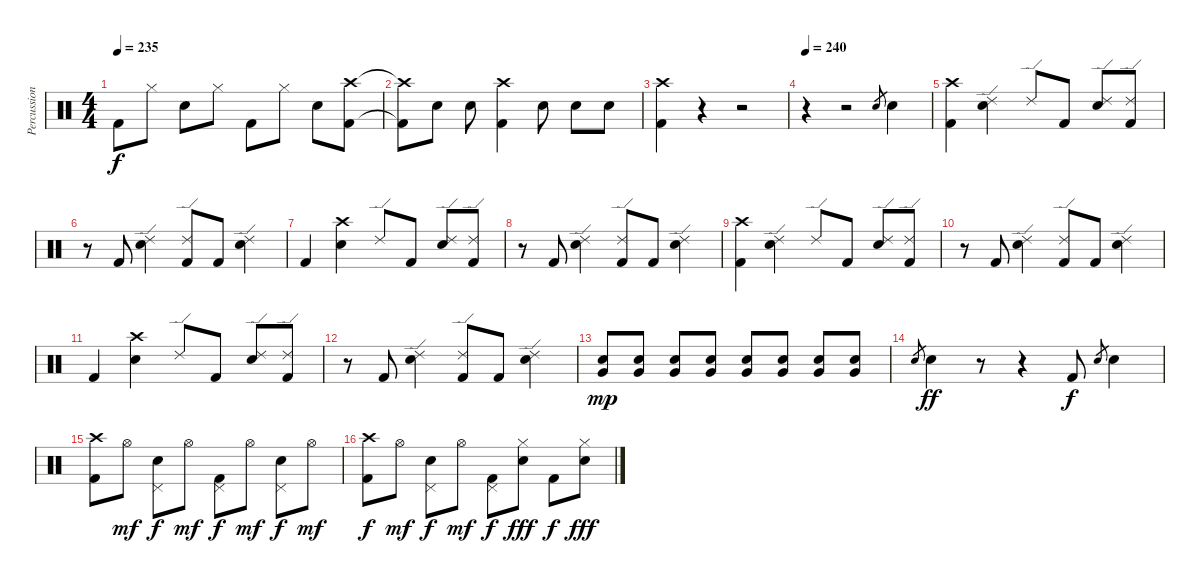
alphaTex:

\track ("Percussion" "Percussion") {instrument percussion}
\staff {score}
\articulation defaults
\ts (4 4)
\tempo 235
\clef neutral
\ks c "Kick (hit) 2".8{dy f} "Hi-Hat (closed)".8 "Snare (hit) 2".8 "Hi-Hat (closed)".8 "Kick (hit) 2".8 "Hi-Hat (closed)".8 "Snare (hit) 2".8
("Crash high (hit)" "Kick (hit) 2").8 |
("Crash high (hit)"{t} "Kick (hit) 2"{t}).8 "Snare (hit) 2".8 "Snare (hit) 2".8 ("Crash high (hit)" "Kick (hit) 2").4 "Snare (hit) 2".8 "Snare (hit) 2".8 "Snare (hit) 2".8 |
("Crash high (hit)" "Kick (hit) 2").4 r.4 r.2 |
\tempo 240
r.4 r.2 "Snare (hit) 2".8{gr} "Snare (hit) 2".4 |
("Crash high (hit)" "Kick (hit) 2").4 ("Ride (edge) 2" "Snare (hit) 2").4 "Ride (edge) 2".8 "Kick (hit) 2".8 ("Ride (edge) 2" "Snare (hit) 2").8 ("Ride (edge) 2" "Kick (hit) 2").8 |
r.8 "Kick (hit) 2".8 ("Ride (edge) 2" "Snare (hit) 2").4 ("Ride (edge) 2" "Kick (hit) 2").8 "Kick (hit) 2".8 ("Ride (edge) 2" "Snare (hit) 2").4 |
"Kick (hit) 2".4 ("Crash high (hit)" "Snare (hit) 2").4 "Ride (edge) 2".8 "Kick (hit) 2".8 ("Ride (edge) 2" "Snare (hit) 2").8 ("Ride (edge) 2" "Kick (hit) 2").8 |
r.8 "Kick (hit) 2".8 ("Ride (edge) 2" "Snare (hit) 2").4 ("Ride (edge) 2" "Kick (hit) 2").8 "Kick (hit) 2".8 ("Ride (edge) 2" "Snare (hit) 2").4 |
("Crash high (hit)" "Kick (hit) 2").4 ("Ride (edge) 2" "Snare (hit) 2").4 "Ride (edge) 2".8 "Kick (hit) 2".8 ("Ride (edge) 2" "Snare (hit) 2").8 ("Ride (edge) 2" "Kick (hit) 2").8 |
r.8 "Kick (hit) 2".8 ("Ride (edge) 2" "Snare (hit) 2").4 ("Ride (edge) 2" "Kick (hit) 2").8 "Kick (hit) 2".8 ("Ride (edge) 2" "Snare (hit) 2").4 |
"Kick (hit) 2".4 ("Crash high (hit)" "Snare (hit) 2").4 "Ride (edge) 2".8 "Kick (hit) 2".8 ("Ride (edge) 2" "Snare (hit) 2").8 ("Ride (edge) 2" "Kick (hit) 2").8 |
r.8 "Kick (hit) 2".8 ("Ride (edge) 2" "Snare (hit) 2").4 ("Ride (edge) 2" "Kick (hit) 2").8 "Kick (hit) 2".8 ("Ride (edge) 2" "Snare (hit) 2").4 |
("Very Low Tom (hit)" "Snare (hit) 2").8{dy mp} ("Very Low Tom (hit)" "Snare (hit) 2").8 ("Very Low Tom (hit)" "Snare (hit) 2").8 ("Very Low Tom (hit)" "Snare (hit) 2").8 ("Very Low Tom (hit)" "Snare (hit) 2").8 ("Very Low Tom (hit)" "Snare (hit) 2").8 ("Very Low Tom (hit)" "Snare (hit) 2").8 ("Very Low Tom (hit)" "Snare (hit) 2").8 |
"Snare (hit) 2".8{gr} "Snare (hit) 2".4{dy ff} r.8 r.4 "Kick (hit) 2".8{dy f} "Snare (hit) 2".8{gr} "Snare (hit) 2".4 |
("Crash high (hit)" "Kick (hit) 2").8 "Hi-Hat (open)".8{dy mf} ("Pedal Hi-Hat (hit)" "Snare (hit) 2").8{dy f} "Hi-Hat (open)".8{dy mf} ("Pedal Hi-Hat (hit)" "Kick (hit) 2").8{dy f} "Hi-Hat (open)".8{dy mf} ("Pedal Hi-Hat (hit)" "Snare (hit) 2").8{dy f} "Hi-Hat (open)".8{dy mf} |
("Crash high (hit)" "Kick (hit) 2").8{dy f} "Hi-Hat (open)".8{dy mf} ("Pedal Hi-Hat (hit)" "Snare (hit) 2").8{dy f} "Hi-Hat (open)".8{dy mf} ("Pedal Hi-Hat (hit)" "Kick (hit) 2").8{dy f} ("Hi-Hat (closed)" "Snare (hit) 2").8{dy fff} "Kick (hit) 2".8{dy f} ("Hi-Hat (closed)" "Snare (hit) 2").8{dy fff}
